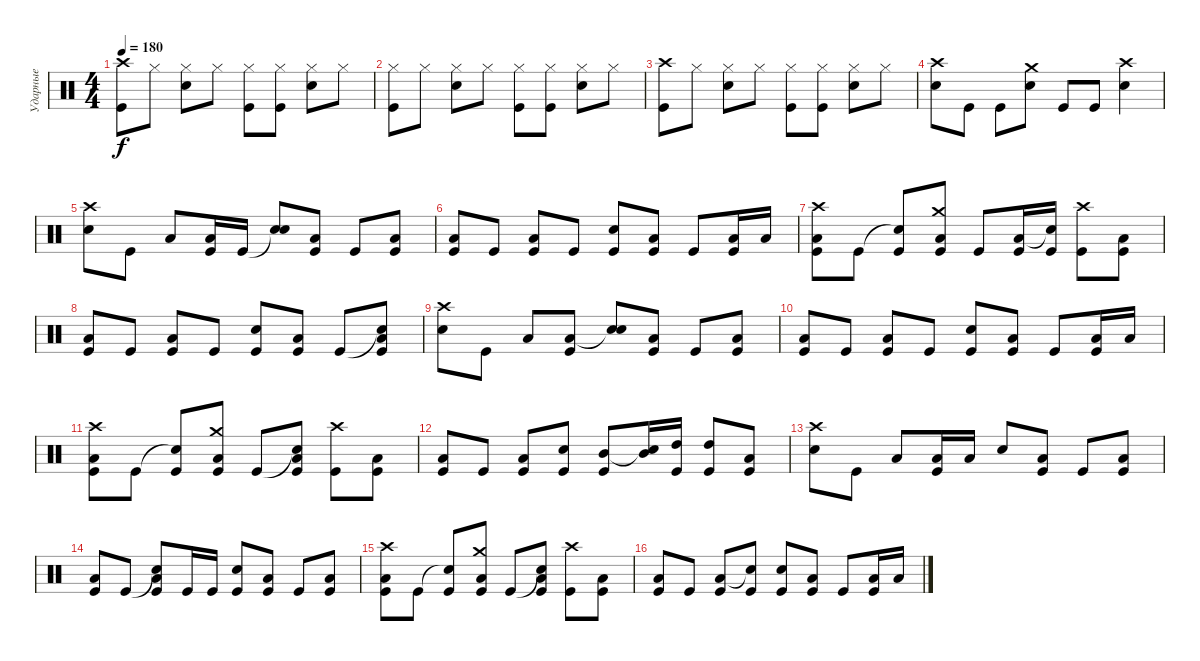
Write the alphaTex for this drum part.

\track ("Ударные" "Ударные") {instrument percussion}
\staff {score}
\articulation defaults
\ts (4 4)
\tempo 180
\clef neutral
\ks c
("Crash high (hit)" "Kick (hit)").8{dy f} "Hi-Hat (closed)".8 ("Hi-Hat (closed)" "Electric Snare (hit)").8 "Hi-Hat (closed)".8 ("Hi-Hat (closed)" "Kick (hit)").8 ("Hi-Hat (closed)" "Kick (hit)").8 ("Hi-Hat (closed)" "Electric Snare (hit)").8 "Hi-Hat (closed)".8 |
("Hi-Hat (closed)" "Kick (hit)").8 "Hi-Hat (closed)".8 ("Hi-Hat (closed)" "Electric Snare (hit)").8 "Hi-Hat (closed)".8 ("Hi-Hat (closed)" "Kick (hit)").8 ("Hi-Hat (closed)" "Kick (hit)").8 ("Hi-Hat (closed)" "Electric Snare (hit)").8 "Hi-Hat (closed)".8 |
("Crash high (hit)" "Kick (hit)").8 "Hi-Hat (closed)".8 ("Hi-Hat (closed)" "Electric Snare (hit)").8 "Hi-Hat (closed)".8 ("Hi-Hat (closed)" "Kick (hit)").8 ("Hi-Hat (closed)" "Kick (hit)").8 ("Hi-Hat (closed)" "Electric Snare (hit)").8 "Hi-Hat (closed)".8 |
("Crash high (hit)" "Electric Snare (hit)").8 "Kick (hit)".8 "Kick (hit)".8 ("Crash medium (hit)" "Electric Snare (hit)").8 "Kick (hit)".8 "Kick (hit)".8 ("Crash high (hit)" "Electric Snare (hit)").4 |
("Crash high (hit)" "Electric Snare (hit)").8 "Kick (hit)".8 "Low Tom (hit)".8 ("Low Tom (hit)" "Kick (hit)").16 "Kick (hit)".16 ("Snare (hit)"{t} "Electric Snare (hit)").8 ("Low Tom (hit)" "Kick (hit)").8 "Kick (hit)".8 ("Low Tom (hit)" "Kick (hit)").8 |
("Low Tom (hit)" "Kick (hit)").8 "Kick (hit)".8 ("Low Tom (hit)" "Kick (hit)").8 "Kick (hit)".8 ("Electric Snare (hit)" "Kick (hit)").8 ("Low Tom (hit)" "Kick (hit)").8 "Kick (hit)".8 ("Low Tom (hit)" "Kick (hit)").16 "Low Tom (hit)".16 |
("Crash high (hit)" "Low Tom (hit)" "Kick (hit)").8 "Kick (hit)".8 ("Snare (hit)"{t} "Kick (hit)").8 ("Crash medium (hit)" "Low Tom (hit)" "Kick (hit)").8 "Kick (hit)".8 ("Low Tom (hit)" "Kick (hit)").16 ("Snare (hit)"{t} "Kick (hit)").16 ("Crash high (hit)" "Kick (hit)").8 ("Low Tom (hit)" "Kick (hit)").8 |
("Low Tom (hit)" "Kick (hit)").8 "Kick (hit)".8 ("Low Tom (hit)" "Kick (hit)").8 "Kick (hit)".8 ("Electric Snare (hit)" "Kick (hit)").8 ("Low Tom (hit)" "Kick (hit)").8 "Kick (hit)".8 ("Snare (hit)"{t} "Low Tom (hit)" "Kick (hit)").8 |
("Crash high (hit)" "Electric Snare (hit)").8 "Kick (hit)".8 "Low Tom (hit)".8 ("Low Tom (hit)" "Kick (hit)").8 ("Snare (hit)"{t} "Electric Snare (hit)").8 ("Low Tom (hit)" "Kick (hit)").8 "Kick (hit)".8 ("Low Tom (hit)" "Kick (hit)").8 |
("Low Tom (hit)" "Kick (hit)").8 "Kick (hit)".8 ("Low Tom (hit)" "Kick (hit)").8 "Kick (hit)".8 ("Electric Snare (hit)" "Kick (hit)").8 ("Low Tom (hit)" "Kick (hit)").8 "Kick (hit)".8 ("Low Tom (hit)" "Kick (hit)").16 "Low Tom (hit)".16 |
("Crash high (hit)" "Low Tom (hit)" "Kick (hit)").8 "Kick (hit)".8 ("Snare (hit)"{t} "Kick (hit)").8 ("Crash medium (hit)" "Low Tom (hit)" "Kick (hit)").8 "Kick (hit)".8 ("Snare (hit)"{t} "Low Tom (hit)" "Kick (hit)").8 ("Crash high (hit)" "Kick (hit)").8 ("Low Tom (hit)" "Kick (hit)").8 |
("Low Tom (hit)" "Kick (hit)").8 "Kick (hit)".8 ("Low Tom (hit)" "Kick (hit)").8 ("Electric Snare (hit)" "Kick (hit)").8 ("Mid Tom (hit)" "Kick (hit)").8 ("Snare (hit)"{t} "Mid Tom (hit)").16 ("High Tom (hit)" "Kick (hit)").16 ("High Tom (hit)" "Kick (hit)").8 ("Low Tom (hit)" "Kick (hit)").8 |
("Crash high (hit)" "Electric Snare (hit)").8 "Kick (hit)".8 "Low Tom (hit)".8 ("Low Tom (hit)" "Kick (hit)").16 "Low Tom (hit)".16 "Electric Snare (hit)".8 ("Low Tom (hit)" "Kick (hit)").8 "Kick (hit)".8 ("Low Tom (hit)" "Kick (hit)").8 |
("Low Tom (hit)" "Kick (hit)").8 "Kick (hit)".8 ("Snare (hit)"{t} "Low Tom (hit)" "Kick (hit)").8 "Kick (hit)".16 "Kick (hit)".16 ("Electric Snare (hit)" "Kick (hit)").8 ("Low Tom (hit)" "Kick (hit)").8 "Kick (hit)".8 ("Low Tom (hit)" "Kick (hit)").8 |
("Crash high (hit)" "Low Tom (hit)" "Kick (hit)").8 "Kick (hit)".8 ("Snare (hit)"{t} "Kick (hit)").8 ("Crash medium (hit)" "Low Tom (hit)" "Kick (hit)").8 "Kick (hit)".8 ("Snare (hit)"{t} "Low Tom (hit)" "Kick (hit)").8 ("Crash high (hit)" "Kick (hit)").8 ("Low Tom (hit)" "Kick (hit)").8 |
("Low Tom (hit)" "Kick (hit)").8 "Kick (hit)".8 ("Low Tom (hit)" "Kick (hit)").8 ("Snare (hit)"{t} "Kick (hit)").8 ("Electric Snare (hit)" "Kick (hit)").8 ("Low Tom (hit)" "Kick (hit)").8 "Kick (hit)".8 ("Low Tom (hit)" "Kick (hit)").16 "Low Tom (hit)".16
